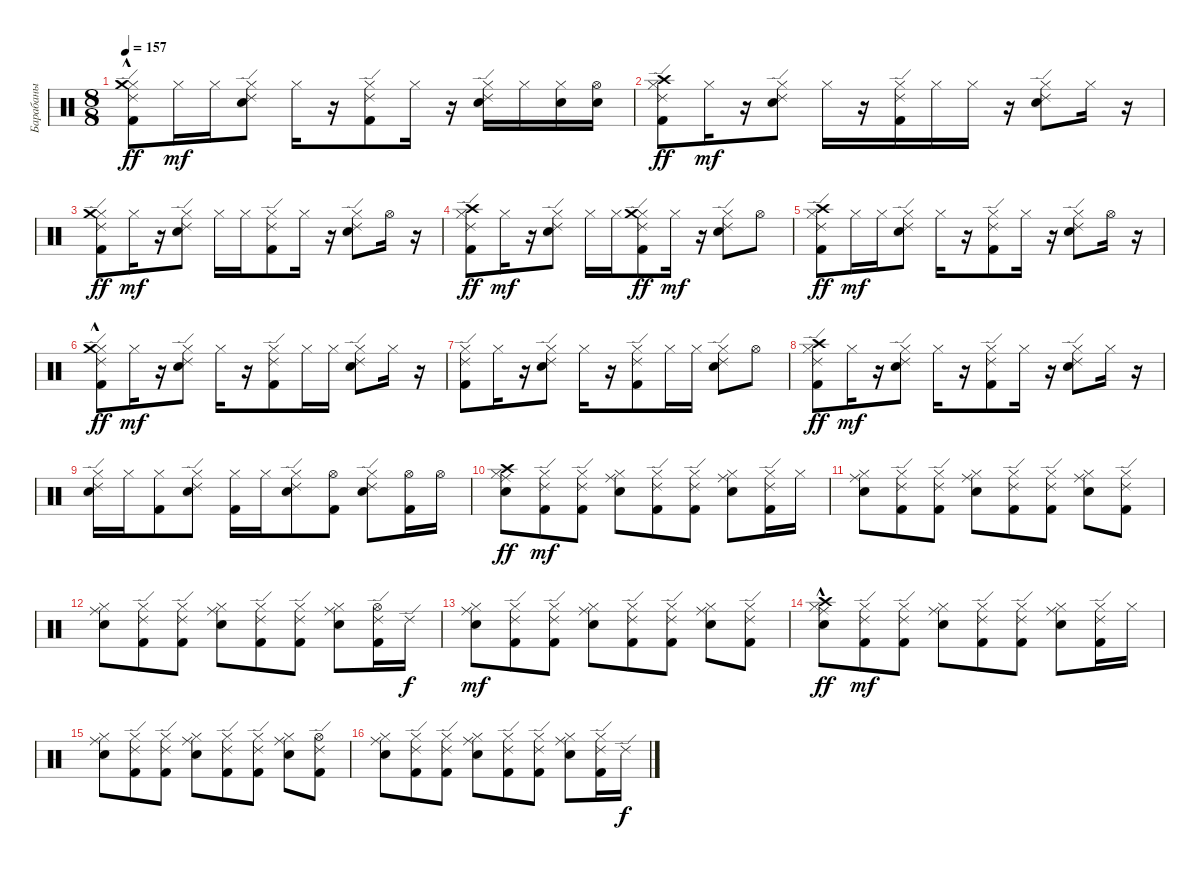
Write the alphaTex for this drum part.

\track ("Барабаны" "Барабаны") {instrument percussion}
\staff {score}
\articulation defaults
\ts (8 8)
\tempo 157
\clef neutral
\ks c
("Kick (hit) 2" "Hi-Hat (closed)" "Ride (edge) 2" "Crash medium (hit)"{hac}).8{dy ff} "Hi-Hat (closed)".16{dy mf} "Hi-Hat (closed)".16 ("Snare (hit) 2" "Hi-Hat (closed)" "Ride (edge) 2").8 "Hi-Hat (closed)".16 r.16 ("Kick (hit) 2" "Hi-Hat (closed)" "Ride (edge) 2").8 "Hi-Hat (closed)".16 r.16 ("Snare (hit) 2" "Hi-Hat (closed)" "Ride (edge) 2").16 "Hi-Hat (closed)".16 ("Snare (hit) 2" "Hi-Hat (closed)").16 ("Snare (hit) 2" "Hi-Hat (open)").16 |
("Kick (hit) 2" "Hi-Hat (closed)" "Ride (edge) 2" "Crash high (hit)").8{dy ff} "Hi-Hat (closed)".16{dy mf} r.16 ("Snare (hit) 2" "Hi-Hat (closed)" "Ride (edge) 2").8 "Hi-Hat (closed)".16 r.16 ("Kick (hit) 2" "Hi-Hat (closed)" "Ride (edge) 2").16 "Hi-Hat (closed)".16 "Hi-Hat (closed)".16 r.16 ("Snare (hit) 2" "Hi-Hat (closed)" "Ride (edge) 2").8 "Hi-Hat (closed)".16 r.16 |
("Kick (hit) 2" "Hi-Hat (closed)" "Ride (edge) 2" "Crash medium (hit)").8{dy ff} "Hi-Hat (closed)".16{dy mf} r.16 ("Snare (hit) 2" "Hi-Hat (closed)" "Ride (edge) 2").8 "Hi-Hat (closed)".16 "Hi-Hat (closed)".16 ("Kick (hit) 2" "Hi-Hat (closed)" "Ride (edge) 2").8 "Hi-Hat (closed)".16 r.16 ("Snare (hit) 2" "Hi-Hat (closed)" "Ride (edge) 2").8 "Hi-Hat (open)".16 r.16 |
("Kick (hit) 2" "Hi-Hat (closed)" "Ride (edge) 2" "Crash high (hit)").8{dy ff} "Hi-Hat (closed)".16{dy mf} r.16 ("Snare (hit) 2" "Hi-Hat (closed)" "Ride (edge) 2").8 "Hi-Hat (closed)".16 "Hi-Hat (closed)".16 ("Kick (hit) 2" "Hi-Hat (closed)" "Ride (edge) 2" "Crash medium (hit)").8{dy ff} "Hi-Hat (closed)".16{dy mf} r.16 ("Snare (hit) 2" "Hi-Hat (closed)" "Ride (edge) 2").8 "Hi-Hat (open)".8 |
("Kick (hit) 2" "Hi-Hat (closed)" "Ride (edge) 2" "Crash high (hit)").8{dy ff} "Hi-Hat (closed)".16{dy mf} "Hi-Hat (closed)".16 ("Snare (hit) 2" "Hi-Hat (closed)" "Ride (edge) 2").8 "Hi-Hat (closed)".16 r.16 ("Kick (hit) 2" "Hi-Hat (closed)" "Ride (edge) 2").8 "Hi-Hat (closed)".16 r.16 ("Snare (hit) 2" "Hi-Hat (closed)" "Ride (edge) 2").8 "Hi-Hat (open)".16 r.16 |
("Kick (hit) 2" "Hi-Hat (closed)" "Ride (edge) 2" "Crash medium (hit)"{hac}).8{dy ff} "Hi-Hat (closed)".16{dy mf} r.16 ("Snare (hit) 2" "Hi-Hat (closed)" "Ride (edge) 2").8 "Hi-Hat (closed)".16 r.16 ("Kick (hit) 2" "Hi-Hat (closed)" "Ride (edge) 2").8 "Hi-Hat (closed)".16 "Hi-Hat (closed)".16 ("Snare (hit) 2" "Hi-Hat (closed)" "Ride (edge) 2").8 "Hi-Hat (closed)".16 r.16 |
("Kick (hit) 2" "Hi-Hat (closed)" "Ride (edge) 2").8 "Hi-Hat (closed)".16 r.16 ("Snare (hit) 2" "Hi-Hat (closed)" "Ride (edge) 2").8 "Hi-Hat (closed)".16 r.16 ("Kick (hit) 2" "Hi-Hat (closed)" "Ride (edge) 2").8 "Hi-Hat (closed)".16 "Hi-Hat (closed)".16 ("Snare (hit) 2" "Hi-Hat (closed)" "Ride (edge) 2").8 "Hi-Hat (open)".8 |
("Kick (hit) 2" "Hi-Hat (closed)" "Ride (edge) 2" "Crash high (hit)").8{dy ff} "Hi-Hat (closed)".16{dy mf} r.16 ("Snare (hit) 2" "Hi-Hat (closed)" "Ride (edge) 2").8 "Hi-Hat (closed)".16 r.16 ("Kick (hit) 2" "Hi-Hat (closed)" "Ride (edge) 2").8 "Hi-Hat (closed)".16 r.16 ("Snare (hit) 2" "Hi-Hat (closed)" "Ride (edge) 2").8 "Hi-Hat (closed)".16 r.16 |
("Snare (hit) 2" "Hi-Hat (closed)" "Ride (edge) 2").16 "Hi-Hat (closed)".16 ("Kick (hit) 2" "Hi-Hat (closed)").8 ("Snare (hit) 2" "Hi-Hat (closed)" "Ride (edge) 2").8 ("Kick (hit) 2" "Hi-Hat (closed)").16 "Hi-Hat (closed)".16 ("Snare (hit) 2" "Hi-Hat (closed)" "Ride (edge) 2").8 ("Kick (hit) 2" "Hi-Hat (open)").8 ("Snare (hit) 2" "Hi-Hat (closed)" "Ride (edge) 2").8 ("Kick (hit) 2" "Hi-Hat (open)").16 "Hi-Hat (open)".16 |
("Snare (hit) 2" "Hi-Hat (closed)" "Ride (middle)" "Crash high (hit)").8{dy ff} ("Kick (hit) 2" "Hi-Hat (closed)" "Ride (edge) 2").8{dy mf} ("Kick (hit) 2" "Hi-Hat (closed)" "Ride (edge) 2").8 ("Snare (hit) 2" "Hi-Hat (closed)" "Ride (middle)").8 ("Kick (hit) 2" "Hi-Hat (closed)" "Ride (edge) 2").8 ("Kick (hit) 2" "Hi-Hat (closed)" "Ride (edge) 2").8 ("Snare (hit) 2" "Hi-Hat (closed)" "Ride (middle)").8 ("Kick (hit) 2" "Hi-Hat (closed)" "Ride (edge) 2").16 "Hi-Hat (closed)".16 |
("Snare (hit) 2" "Hi-Hat (closed)" "Ride (middle)").8 ("Kick (hit) 2" "Hi-Hat (closed)" "Ride (edge) 2").8 ("Kick (hit) 2" "Hi-Hat (closed)" "Ride (edge) 2").8 ("Snare (hit) 2" "Hi-Hat (closed)" "Ride (middle)").8 ("Kick (hit) 2" "Hi-Hat (closed)" "Ride (edge) 2").8 ("Kick (hit) 2" "Hi-Hat (closed)" "Ride (edge) 2").8 ("Snare (hit) 2" "Hi-Hat (closed)" "Ride (middle)").8 ("Kick (hit) 2" "Hi-Hat (closed)" "Ride (edge) 2").8 |
("Snare (hit) 2" "Hi-Hat (closed)" "Ride (middle)").8 ("Kick (hit) 2" "Hi-Hat (closed)" "Ride (edge) 2").8 ("Kick (hit) 2" "Hi-Hat (closed)" "Ride (edge) 2").8 ("Snare (hit) 2" "Hi-Hat (closed)" "Ride (middle)").8 ("Kick (hit) 2" "Hi-Hat (closed)" "Ride (edge) 2").8 ("Kick (hit) 2" "Hi-Hat (closed)" "Ride (edge) 2").8 ("Snare (hit) 2" "Hi-Hat (closed)" "Ride (middle)").8 ("Kick (hit) 2" "Hi-Hat (open)" "Ride (edge) 2").16 "Ride (edge) 2".16{dy f} |
("Snare (hit) 2" "Hi-Hat (closed)" "Ride (middle)").8{dy mf} ("Kick (hit) 2" "Hi-Hat (closed)" "Ride (edge) 2").8 ("Kick (hit) 2" "Hi-Hat (closed)" "Ride (edge) 2").8 ("Snare (hit) 2" "Hi-Hat (closed)" "Ride (middle)").8 ("Kick (hit) 2" "Hi-Hat (closed)" "Ride (edge) 2").8 ("Kick (hit) 2" "Hi-Hat (closed)" "Ride (edge) 2").8 ("Snare (hit) 2" "Hi-Hat (closed)" "Ride (middle)").8 ("Kick (hit) 2" "Hi-Hat (closed)" "Ride (edge) 2").8 |
("Snare (hit) 2" "Hi-Hat (closed)" "Ride (middle)" "Crash high (hit)"{hac}).8{dy ff} ("Kick (hit) 2" "Hi-Hat (closed)" "Ride (edge) 2").8{dy mf} ("Kick (hit) 2" "Hi-Hat (closed)" "Ride (edge) 2").8 ("Snare (hit) 2" "Hi-Hat (closed)" "Ride (middle)").8 ("Kick (hit) 2" "Hi-Hat (closed)" "Ride (edge) 2").8 ("Kick (hit) 2" "Hi-Hat (closed)" "Ride (edge) 2").8 ("Snare (hit) 2" "Hi-Hat (closed)" "Ride (middle)").8 ("Kick (hit) 2" "Hi-Hat (closed)" "Ride (edge) 2").16 "Hi-Hat (closed)".16 |
("Snare (hit) 2" "Hi-Hat (closed)" "Ride (middle)").8 ("Kick (hit) 2" "Hi-Hat (closed)" "Ride (edge) 2").8 ("Kick (hit) 2" "Hi-Hat (closed)" "Ride (edge) 2").8 ("Snare (hit) 2" "Hi-Hat (closed)" "Ride (middle)").8 ("Kick (hit) 2" "Hi-Hat (closed)" "Ride (edge) 2").8 ("Kick (hit) 2" "Hi-Hat (closed)" "Ride (edge) 2").8 ("Snare (hit) 2" "Hi-Hat (closed)" "Ride (middle)").8 ("Kick (hit) 2" "Hi-Hat (open)" "Ride (edge) 2").8 |
("Snare (hit) 2" "Hi-Hat (closed)" "Ride (middle)").8 ("Kick (hit) 2" "Hi-Hat (closed)" "Ride (edge) 2").8 ("Kick (hit) 2" "Hi-Hat (closed)" "Ride (edge) 2").8 ("Snare (hit) 2" "Hi-Hat (closed)" "Ride (middle)").8 ("Kick (hit) 2" "Hi-Hat (closed)" "Ride (edge) 2").8 ("Kick (hit) 2" "Hi-Hat (closed)" "Ride (edge) 2").8 ("Snare (hit) 2" "Hi-Hat (closed)" "Ride (middle)").8 ("Kick (hit) 2" "Hi-Hat (closed)" "Ride (edge) 2").16 "Ride (edge) 2".16{dy f}
